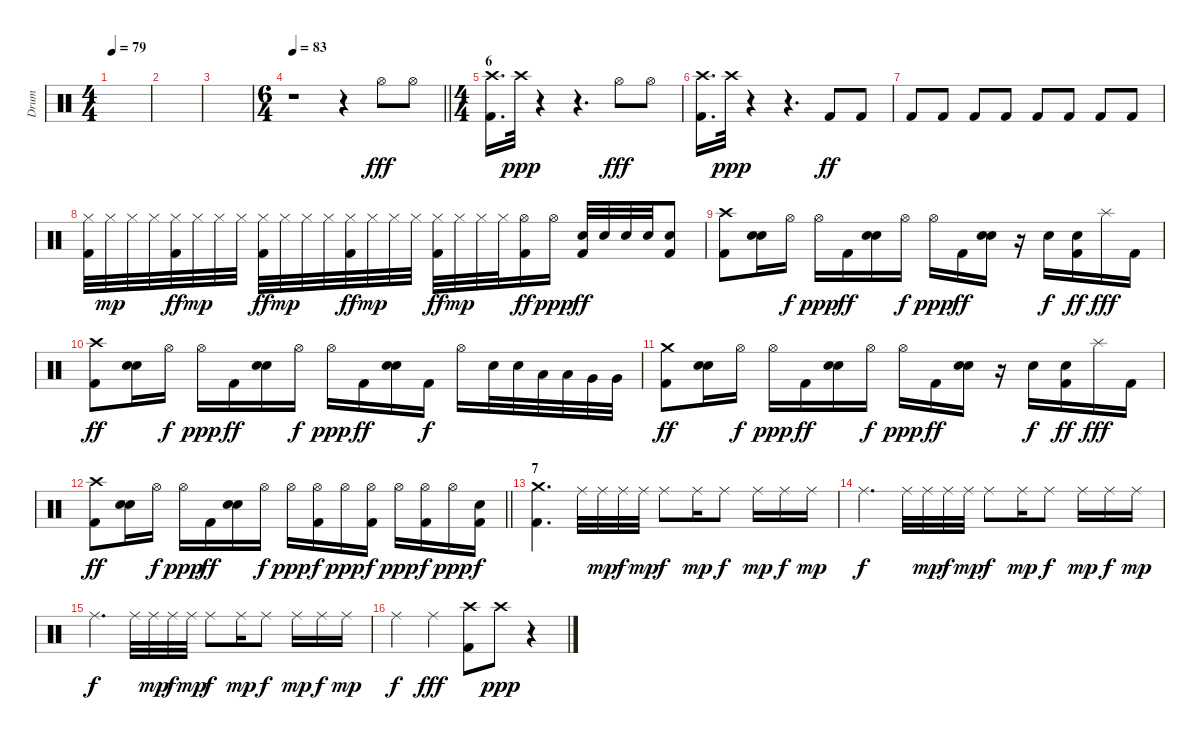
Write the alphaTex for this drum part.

\track ("Drum" "Drum") {instrument percussion}
\staff {score}
\articulation defaults
\ts (4 4)
\tempo 79
\clef neutral
\ks c
|
|
|
\ts (6 4)
\tempo 83
\barLineRight lightlight
r.1 r.4 "Hi-Hat (open)".8{dy fff} "Hi-Hat (open)".8 |
\ts (4 4)
\section ("" "6")
("Crash high (hit)" "Kick (hit) 2").16{d} "Crash high (hit)".32{dy ppp} r.4 r.4{d} "Hi-Hat (open)".8{dy fff} "Hi-Hat (open)".8 |
("Crash high (hit)" "Kick (hit) 2").16{d} "Crash high (hit)".32{dy ppp} r.4 r.4{d} "Kick (hit) 2".8{dy ff} "Kick (hit) 2".8 |
"Kick (hit) 2".8 "Kick (hit) 2".8 "Kick (hit) 2".8 "Kick (hit) 2".8 "Kick (hit) 2".8 "Kick (hit) 2".8 "Kick (hit) 2".8 "Kick (hit) 2".8 |
("Hi-Hat (closed)" "Kick (hit) 2").32 "Hi-Hat (closed)".32{dy mp} "Hi-Hat (closed)".32 "Hi-Hat (closed)".32 ("Hi-Hat (closed)" "Kick (hit) 2").32{dy ff} "Hi-Hat (closed)".32{dy mp} "Hi-Hat (closed)".32 "Hi-Hat (closed)".32 ("Hi-Hat (closed)" "Kick (hit) 2").32{dy ff} "Hi-Hat (closed)".32{dy mp} "Hi-Hat (closed)".32 "Hi-Hat (closed)".32 ("Hi-Hat (closed)" "Kick (hit) 2").32{dy ff} "Hi-Hat (closed)".32{dy mp} "Hi-Hat (closed)".32 "Hi-Hat (closed)".32 ("Hi-Hat (closed)" "Kick (hit) 2").32{dy ff} "Hi-Hat (closed)".32{dy mp} "Hi-Hat (closed)".32 "Hi-Hat (closed)".32 ("Hi-Hat (open)" "Kick (hit) 2").16{dy ff} "Hi-Hat (open)".16{dy ppp} ("Electric Snare (hit)" "Kick (hit) 2").32{dy ff} "Electric Snare (hit)".32 "Electric Snare (hit)".32 "Electric Snare (hit)".32 ("Electric Snare (hit)" "Kick (hit) 2").8 |
("Crash high (hit)" "Kick (hit) 2").8 ("Electric Snare (hit)" "Electric Snare (hit)").16 "Hi-Hat (open)".16{dy f} "Hi-Hat (open)".16{dy ppp} "Kick (hit) 2".16{dy ff} ("Electric Snare (hit)" "Electric Snare (hit)").16 "Hi-Hat (open)".16{dy f} "Hi-Hat (open)".16{dy ppp} "Kick (hit) 2".16{dy ff} ("Electric Snare (hit)" "Electric Snare (hit)").16 r.16 "Electric Snare (hit)".16{dy f} ("Electric Snare (hit)" "Kick (hit) 2").16{dy ff} "Splash (hit)".16{dy fff} "Kick (hit) 2".16 |
("Crash high (hit)" "Kick (hit) 2").8{dy ff} ("Electric Snare (hit)" "Electric Snare (hit)").16 "Hi-Hat (open)".16{dy f} "Hi-Hat (open)".16{dy ppp} "Kick (hit) 2".16{dy ff} ("Electric Snare (hit)" "Electric Snare (hit)").16 "Hi-Hat (open)".16{dy f} "Hi-Hat (open)".16{dy ppp} "Kick (hit) 2".16{dy ff} ("Electric Snare (hit)" "Electric Snare (hit)").16 "Kick (hit) 2".16{dy f} "Hi-Hat (open)".16 "Electric Snare (hit)".32 "Electric Snare (hit)".32 "Low Tom (hit)".32 "Low Tom (hit)".32 "Very Low Tom (hit)".32 "Very Low Tom (hit)".32 |
("Crash medium (hit)" "Kick (hit) 2").8{dy ff} ("Electric Snare (hit)" "Electric Snare (hit)").16 "Hi-Hat (open)".16{dy f} "Hi-Hat (open)".16{dy ppp} "Kick (hit) 2".16{dy ff} ("Electric Snare (hit)" "Electric Snare (hit)").16 "Hi-Hat (open)".16{dy f} "Hi-Hat (open)".16{dy ppp} "Kick (hit) 2".16{dy ff} ("Electric Snare (hit)" "Electric Snare (hit)").16 r.16 "Electric Snare (hit)".16{dy f} ("Electric Snare (hit)" "Kick (hit) 2").16{dy ff} "Splash (hit)".16{dy fff} "Kick (hit) 2".16 |
\barLineRight lightlight
("Crash high (hit)" "Kick (hit) 2").8{dy ff} ("Electric Snare (hit)" "Electric Snare (hit)").16 "Hi-Hat (open)".16{dy f} "Hi-Hat (open)".16{dy ppp} "Kick (hit) 2".16{dy ff} ("Electric Snare (hit)" "Electric Snare (hit)").16 "Hi-Hat (open)".16{dy f} "Hi-Hat (open)".16{dy ppp} ("Hi-Hat (open)" "Kick (hit) 2").16{dy f} "Hi-Hat (open)".16{dy ppp} ("Hi-Hat (open)" "Kick (hit) 2").16{dy f} "Hi-Hat (open)".16{dy ppp} ("Hi-Hat (open)" "Kick (hit) 2").16{dy f} "Hi-Hat (open)".16{dy ppp} ("Electric Snare (hit)" "Kick (hit) 2").16{dy f} |
\section ("" "7")
("Crash medium (hit)" "Kick (hit) 2").4{d} "Ride (middle)".32 "Ride (middle)".32{dy mp} "Ride (middle)".32{dy f} "Ride (middle)".32{dy mp} "Ride (middle)".8{dy f} "Ride (middle)".16{dy mp} "Ride (middle)".8{dy f} "Ride (middle)".16{dy mp} "Ride (middle)".16{dy f} "Ride (middle)".16{dy mp} |
"Ride (middle)".4{d dy f} "Ride (middle)".32 "Ride (middle)".32{dy mp} "Ride (middle)".32{dy f} "Ride (middle)".32{dy mp} "Ride (middle)".8{dy f} "Ride (middle)".16{dy mp} "Ride (middle)".8{dy f} "Ride (middle)".16{dy mp} "Ride (middle)".16{dy f} "Ride (middle)".16{dy mp} |
"Ride (middle)".4{d dy f} "Ride (middle)".32 "Ride (middle)".32{dy mp} "Ride (middle)".32{dy f} "Ride (middle)".32{dy mp} "Ride (middle)".8{dy f} "Ride (middle)".16{dy mp} "Ride (middle)".8{dy f} "Ride (middle)".16{dy mp} "Ride (middle)".16{dy f} "Ride (middle)".16{dy mp} |
"Ride (middle)".4{dy f} "Ride (middle)".4{dy fff} ("Crash high (hit)" "Kick (hit) 2").8 "Crash high (hit)".8{dy ppp} r.4
